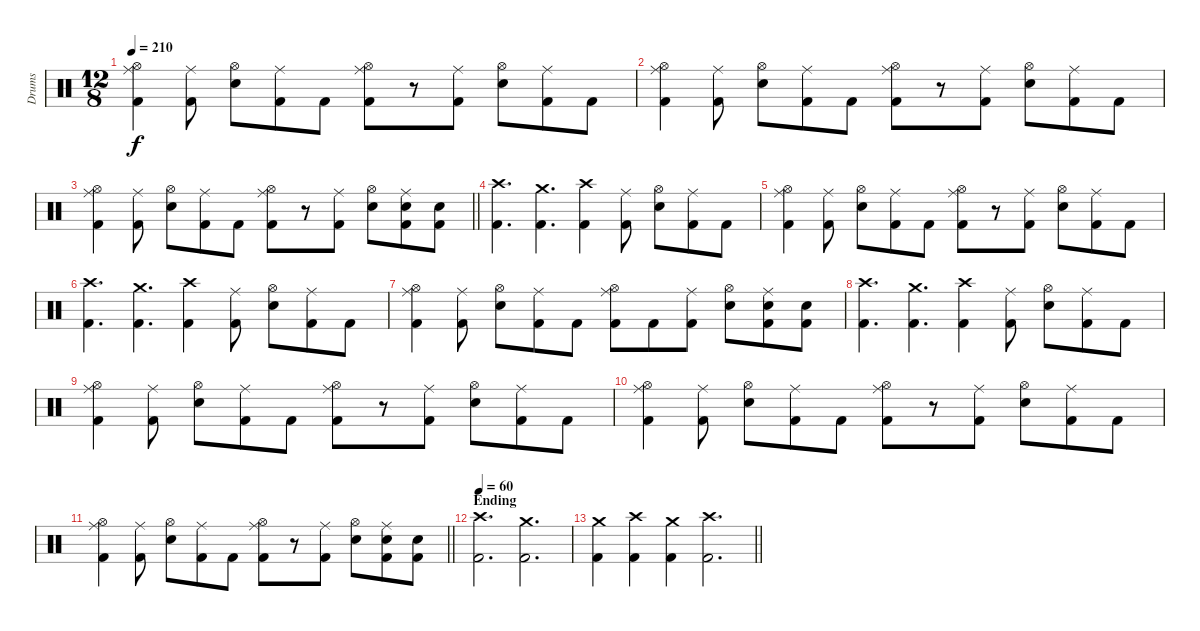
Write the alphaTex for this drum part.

\track ("Drums" "Drums") {instrument percussion}
\staff {score}
\articulation defaults
\ts (12 8)
\tempo 210
\clef neutral
\ks c
("Ride (middle)" "Hi-Hat (open)" "Kick (hit) 2").4{dy f} ("Ride (middle)" "Kick (hit) 2").8 ("Hi-Hat (open)" "Snare (hit) 2").8 ("Ride (middle)" "Kick (hit) 2").8 "Kick (hit) 2".8 ("Ride (middle)" "Hi-Hat (open)" "Kick (hit) 2").8 r.8 ("Ride (middle)" "Kick (hit) 2").8 ("Hi-Hat (open)" "Snare (hit) 2").8 ("Ride (middle)" "Kick (hit) 2").8 "Kick (hit) 2".8 |
("Ride (middle)" "Hi-Hat (open)" "Kick (hit) 2").4 ("Ride (middle)" "Kick (hit) 2").8 ("Hi-Hat (open)" "Snare (hit) 2").8 ("Ride (middle)" "Kick (hit) 2").8 "Kick (hit) 2".8 ("Ride (middle)" "Hi-Hat (open)" "Kick (hit) 2").8 r.8 ("Ride (middle)" "Kick (hit) 2").8 ("Hi-Hat (open)" "Snare (hit) 2").8 ("Ride (middle)" "Kick (hit) 2").8 "Kick (hit) 2".8 |
\barLineRight lightlight
("Ride (middle)" "Hi-Hat (open)" "Kick (hit) 2").4 ("Ride (middle)" "Kick (hit) 2").8 ("Hi-Hat (open)" "Snare (hit) 2").8 ("Ride (middle)" "Kick (hit) 2").8 "Kick (hit) 2".8 ("Ride (middle)" "Hi-Hat (open)" "Kick (hit) 2").8 r.8 ("Ride (middle)" "Kick (hit) 2").8 ("Hi-Hat (open)" "Snare (hit) 2").8 ("Ride (middle)" "Snare (hit) 2" "Kick (hit) 2").8 ("Snare (hit) 2" "Kick (hit) 2").8 |
("Crash high (hit)" "Kick (hit) 2").4{d} ("Crash medium (hit)" "Kick (hit) 2").4{d} ("Crash high (hit)" "Kick (hit) 2").4 ("Ride (middle)" "Kick (hit) 2").8 ("Hi-Hat (open)" "Snare (hit) 2").8 ("Ride (middle)" "Kick (hit) 2").8 "Kick (hit) 2".8 |
("Ride (middle)" "Hi-Hat (open)" "Kick (hit) 2").4 ("Ride (middle)" "Kick (hit) 2").8 ("Hi-Hat (open)" "Snare (hit) 2").8 ("Ride (middle)" "Kick (hit) 2").8 "Kick (hit) 2".8 ("Ride (middle)" "Hi-Hat (open)" "Kick (hit) 2").8 r.8 ("Ride (middle)" "Kick (hit) 2").8 ("Hi-Hat (open)" "Snare (hit) 2").8 ("Ride (middle)" "Kick (hit) 2").8 "Kick (hit) 2".8 |
("Crash high (hit)" "Kick (hit) 2").4{d} ("Crash medium (hit)" "Kick (hit) 2").4{d} ("Crash high (hit)" "Kick (hit) 2").4 ("Ride (middle)" "Kick (hit) 2").8 ("Hi-Hat (open)" "Snare (hit) 2").8 ("Ride (middle)" "Kick (hit) 2").8 "Kick (hit) 2".8 |
("Ride (middle)" "Hi-Hat (open)" "Kick (hit) 2").4 ("Ride (middle)" "Kick (hit) 2").8 ("Hi-Hat (open)" "Snare (hit) 2").8 ("Ride (middle)" "Kick (hit) 2").8 "Kick (hit) 2".8 ("Ride (middle)" "Hi-Hat (open)" "Kick (hit) 2").8 "Kick (hit) 2".8 ("Ride (middle)" "Kick (hit) 2").8 ("Hi-Hat (open)" "Snare (hit) 2").8 ("Ride (middle)" "Snare (hit) 2" "Kick (hit) 2").8 ("Snare (hit) 2" "Kick (hit) 2").8 |
("Crash high (hit)" "Kick (hit) 2").4{d} ("Crash medium (hit)" "Kick (hit) 2").4{d} ("Crash high (hit)" "Kick (hit) 2").4 ("Ride (middle)" "Kick (hit) 2").8 ("Hi-Hat (open)" "Snare (hit) 2").8 ("Ride (middle)" "Kick (hit) 2").8 "Kick (hit) 2".8 |
("Ride (middle)" "Hi-Hat (open)" "Kick (hit) 2").4 ("Ride (middle)" "Kick (hit) 2").8 ("Hi-Hat (open)" "Snare (hit) 2").8 ("Ride (middle)" "Kick (hit) 2").8 "Kick (hit) 2".8 ("Ride (middle)" "Hi-Hat (open)" "Kick (hit) 2").8 r.8 ("Ride (middle)" "Kick (hit) 2").8 ("Hi-Hat (open)" "Snare (hit) 2").8 ("Ride (middle)" "Kick (hit) 2").8 "Kick (hit) 2".8 |
("Ride (middle)" "Hi-Hat (open)" "Kick (hit) 2").4 ("Ride (middle)" "Kick (hit) 2").8 ("Hi-Hat (open)" "Snare (hit) 2").8 ("Ride (middle)" "Kick (hit) 2").8 "Kick (hit) 2".8 ("Ride (middle)" "Hi-Hat (open)" "Kick (hit) 2").8 r.8 ("Ride (middle)" "Kick (hit) 2").8 ("Hi-Hat (open)" "Snare (hit) 2").8 ("Ride (middle)" "Kick (hit) 2").8 "Kick (hit) 2".8 |
\barLineRight lightlight
("Ride (middle)" "Hi-Hat (open)" "Kick (hit) 2").4 ("Ride (middle)" "Kick (hit) 2").8 ("Hi-Hat (open)" "Snare (hit) 2").8 ("Ride (middle)" "Kick (hit) 2").8 "Kick (hit) 2".8 ("Ride (middle)" "Hi-Hat (open)" "Kick (hit) 2").8 r.8 ("Ride (middle)" "Kick (hit) 2").8 ("Hi-Hat (open)" "Snare (hit) 2").8 ("Ride (middle)" "Snare (hit) 2" "Kick (hit) 2").8 ("Snare (hit) 2" "Kick (hit) 2").8 |
\section ("" "Ending")
\tempo 60
("Crash high (hit)" "Kick (hit) 2").2{d} ("Crash medium (hit)" "Kick (hit) 2").2{d} |
\barLineRight lightlight
("Crash medium (hit)" "Kick (hit) 2").4 ("Crash high (hit)" "Kick (hit) 2").4 ("Crash medium (hit)" "Kick (hit) 2").4 ("Crash high (hit)" "Kick (hit) 2").2{d}
